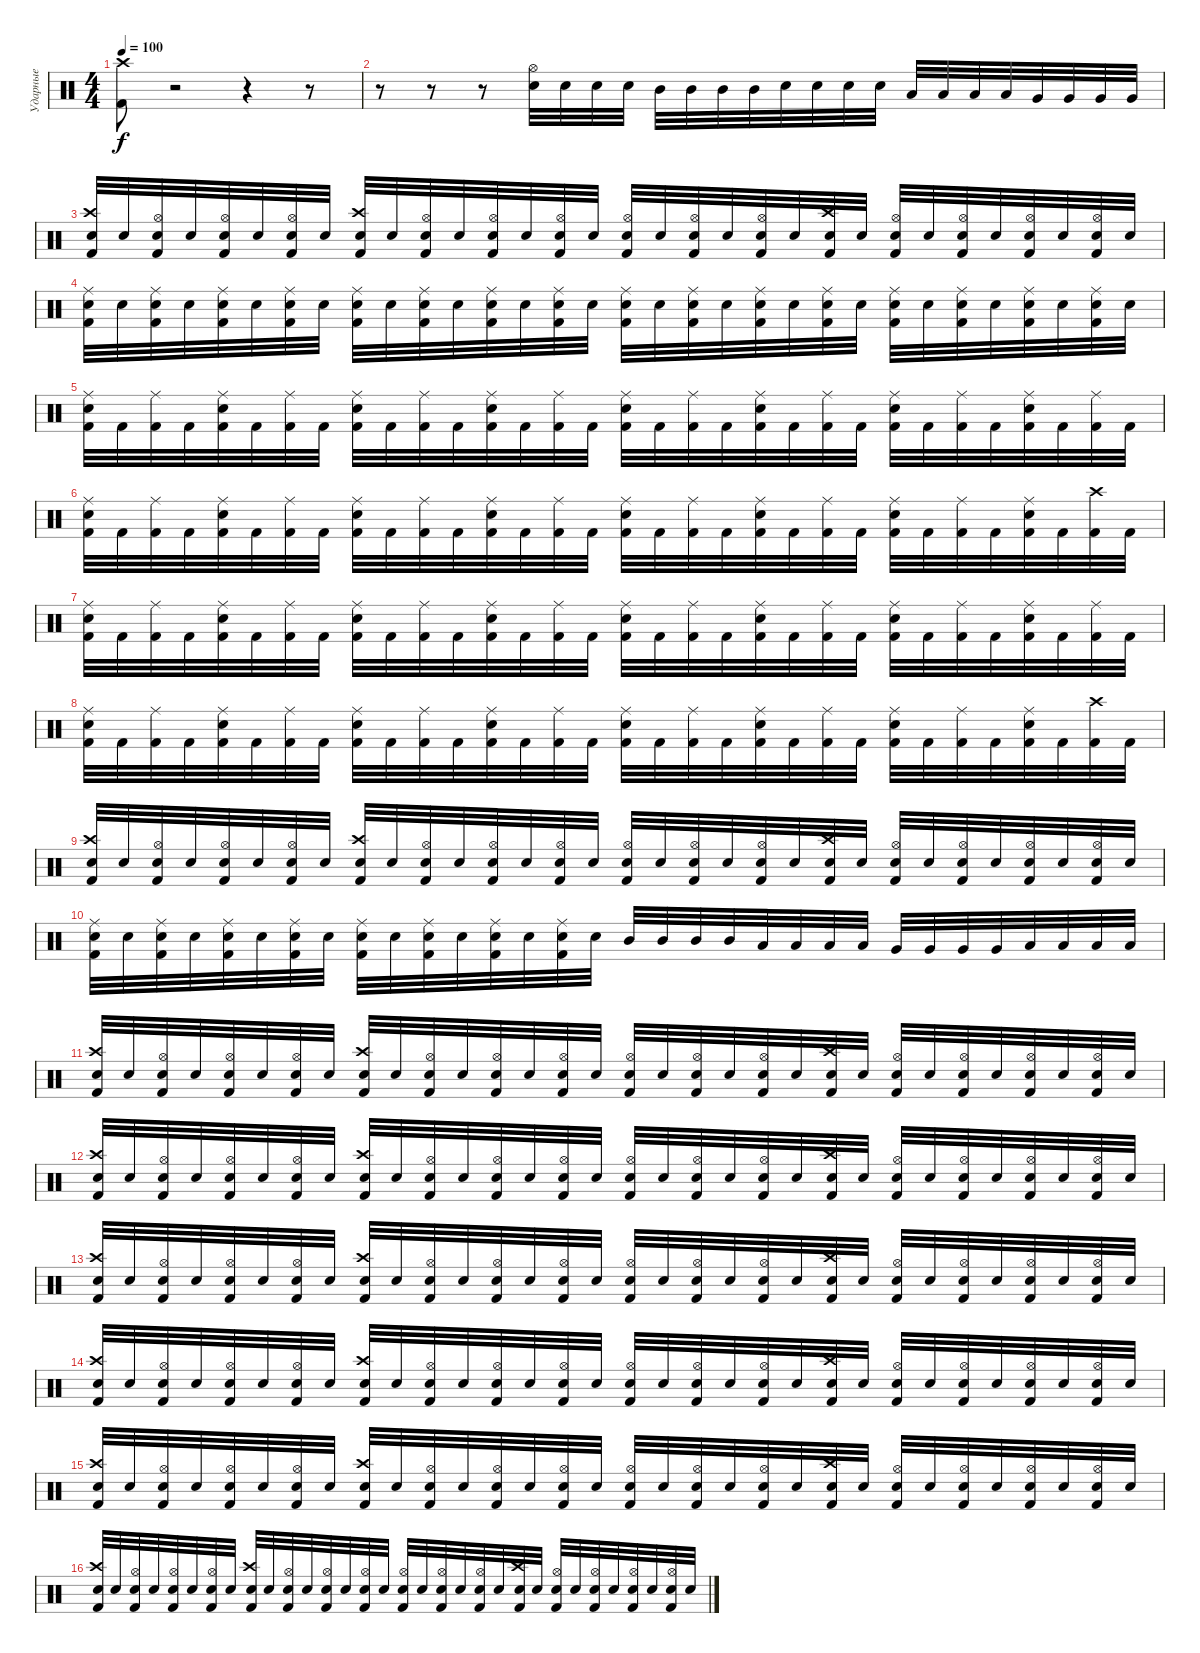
\track ("Ударные" "Ударные") {instrument percussion}
\staff {score}
\articulation defaults
\ts (4 4)
\tempo 100
\clef neutral
\ks c
("Kick (hit) 2" "Crash high (hit)").8{dy f} r.2 r.4 r.8 |
r.8 r.8 r.8 ("Hi-Hat (open)" "Snare (hit) 2").32 "Snare (hit) 2".32 "Snare (hit) 2".32 "Snare (hit) 2".32 "Mid Tom (hit)".32 "Mid Tom (hit)".32 "Mid Tom (hit)".32 "Mid Tom (hit)".32 "Snare (hit) 2".32 "Snare (hit) 2".32 "Snare (hit) 2".32 "Snare (hit) 2".32 "Low Tom (hit)".32 "Low Tom (hit)".32 "Low Tom (hit)".32 "Low Tom (hit)".32 "Very Low Tom (hit)".32 "Very Low Tom (hit)".32 "Very Low Tom (hit)".32 "Very Low Tom (hit)".32 |
("Snare (hit) 2" "Kick (hit) 2" "Crash high (hit)").32 "Snare (hit) 2".32 ("Snare (hit) 2" "Kick (hit) 2" "Hi-Hat (open)").32 "Snare (hit) 2".32 ("Snare (hit) 2" "Kick (hit) 2" "Hi-Hat (open)").32 "Snare (hit) 2".32 ("Snare (hit) 2" "Kick (hit) 2" "Hi-Hat (open)").32 "Snare (hit) 2".32 ("Snare (hit) 2" "Kick (hit) 2" "Crash high (hit)").32 "Snare (hit) 2".32 ("Snare (hit) 2" "Kick (hit) 2" "Hi-Hat (open)").32 "Snare (hit) 2".32 ("Snare (hit) 2" "Kick (hit) 2" "Hi-Hat (open)").32 "Snare (hit) 2".32 ("Snare (hit) 2" "Kick (hit) 2" "Hi-Hat (open)").32 "Snare (hit) 2".32 ("Snare (hit) 2" "Kick (hit) 2" "Hi-Hat (open)").32 "Snare (hit) 2".32 ("Snare (hit) 2" "Kick (hit) 2" "Hi-Hat (open)").32 "Snare (hit) 2".32 ("Snare (hit) 2" "Kick (hit) 2" "Hi-Hat (open)").32 "Snare (hit) 2".32 ("Snare (hit) 2" "Kick (hit) 2" "Crash high (hit)").32 "Snare (hit) 2".32 ("Snare (hit) 2" "Kick (hit) 2" "Hi-Hat (open)").32 "Snare (hit) 2".32 ("Snare (hit) 2" "Kick (hit) 2" "Hi-Hat (open)").32 "Snare (hit) 2".32 ("Snare (hit) 2" "Kick (hit) 2" "Hi-Hat (open)").32 "Snare (hit) 2".32 ("Snare (hit) 2" "Kick (hit) 2" "Hi-Hat (open)").32 "Snare (hit) 2".32 |
("Snare (hit) 2" "Kick (hit) 2" "Ride (middle)").32 "Snare (hit) 2".32 ("Snare (hit) 2" "Kick (hit) 2" "Ride (middle)").32 "Snare (hit) 2".32 ("Snare (hit) 2" "Kick (hit) 2" "Ride (middle)").32 "Snare (hit) 2".32 ("Snare (hit) 2" "Kick (hit) 2" "Ride (middle)").32 "Snare (hit) 2".32 ("Snare (hit) 2" "Kick (hit) 2" "Ride (middle)").32 "Snare (hit) 2".32 ("Snare (hit) 2" "Kick (hit) 2" "Ride (middle)").32 "Snare (hit) 2".32 ("Snare (hit) 2" "Kick (hit) 2" "Ride (middle)").32 "Snare (hit) 2".32 ("Snare (hit) 2" "Kick (hit) 2" "Ride (middle)").32 "Snare (hit) 2".32 ("Snare (hit) 2" "Kick (hit) 2" "Ride (middle)").32 "Snare (hit) 2".32 ("Snare (hit) 2" "Kick (hit) 2" "Ride (middle)").32 "Snare (hit) 2".32 ("Snare (hit) 2" "Kick (hit) 2" "Ride (middle)").32 "Snare (hit) 2".32 ("Snare (hit) 2" "Kick (hit) 2" "Ride (middle)").32 "Snare (hit) 2".32 ("Snare (hit) 2" "Kick (hit) 2" "Ride (middle)").32 "Snare (hit) 2".32 ("Snare (hit) 2" "Kick (hit) 2" "Ride (middle)").32 "Snare (hit) 2".32 ("Snare (hit) 2" "Kick (hit) 2" "Ride (middle)").32 "Snare (hit) 2".32 ("Snare (hit) 2" "Kick (hit) 2" "Ride (middle)").32 "Snare (hit) 2".32 |
("Kick (hit) 2" "Snare (hit) 2" "Ride (middle)").32 "Kick (hit) 2".32 ("Kick (hit) 2" "Ride (middle)").32 "Kick (hit) 2".32 ("Kick (hit) 2" "Snare (hit) 2" "Ride (middle)").32 "Kick (hit) 2".32 ("Kick (hit) 2" "Ride (middle)").32 "Kick (hit) 2".32 ("Kick (hit) 2" "Snare (hit) 2" "Ride (middle)").32 "Kick (hit) 2".32 ("Kick (hit) 2" "Ride (middle)").32 "Kick (hit) 2".32 ("Kick (hit) 2" "Snare (hit) 2" "Ride (middle)").32 "Kick (hit) 2".32 ("Kick (hit) 2" "Ride (middle)").32 "Kick (hit) 2".32 ("Kick (hit) 2" "Snare (hit) 2" "Ride (middle)").32 "Kick (hit) 2".32 ("Kick (hit) 2" "Ride (middle)").32 "Kick (hit) 2".32 ("Kick (hit) 2" "Snare (hit) 2" "Ride (middle)").32 "Kick (hit) 2".32 ("Kick (hit) 2" "Ride (middle)").32 "Kick (hit) 2".32 ("Kick (hit) 2" "Snare (hit) 2" "Ride (middle)").32 "Kick (hit) 2".32 ("Kick (hit) 2" "Ride (middle)").32 "Kick (hit) 2".32 ("Kick (hit) 2" "Snare (hit) 2" "Ride (middle)").32 "Kick (hit) 2".32 ("Kick (hit) 2" "Ride (middle)").32 "Kick (hit) 2".32 |
("Kick (hit) 2" "Snare (hit) 2" "Ride (middle)").32 "Kick (hit) 2".32 ("Kick (hit) 2" "Ride (middle)").32 "Kick (hit) 2".32 ("Kick (hit) 2" "Snare (hit) 2" "Ride (middle)").32 "Kick (hit) 2".32 ("Kick (hit) 2" "Ride (middle)").32 "Kick (hit) 2".32 ("Kick (hit) 2" "Snare (hit) 2" "Ride (middle)").32 "Kick (hit) 2".32 ("Kick (hit) 2" "Ride (middle)").32 "Kick (hit) 2".32 ("Kick (hit) 2" "Snare (hit) 2" "Ride (middle)").32 "Kick (hit) 2".32 ("Kick (hit) 2" "Ride (middle)").32 "Kick (hit) 2".32 ("Kick (hit) 2" "Snare (hit) 2" "Ride (middle)").32 "Kick (hit) 2".32 ("Kick (hit) 2" "Ride (middle)").32 "Kick (hit) 2".32 ("Kick (hit) 2" "Snare (hit) 2" "Ride (middle)").32 "Kick (hit) 2".32 ("Kick (hit) 2" "Ride (middle)").32 "Kick (hit) 2".32 ("Kick (hit) 2" "Snare (hit) 2" "Ride (middle)").32 "Kick (hit) 2".32 ("Kick (hit) 2" "Ride (middle)").32 "Kick (hit) 2".32 ("Kick (hit) 2" "Snare (hit) 2" "Ride (middle)").32 "Kick (hit) 2".32 ("Kick (hit) 2" "Crash high (hit)").32 "Kick (hit) 2".32 |
("Kick (hit) 2" "Snare (hit) 2" "Ride (middle)").32 "Kick (hit) 2".32 ("Kick (hit) 2" "Ride (middle)").32 "Kick (hit) 2".32 ("Kick (hit) 2" "Snare (hit) 2" "Ride (middle)").32 "Kick (hit) 2".32 ("Kick (hit) 2" "Ride (middle)").32 "Kick (hit) 2".32 ("Kick (hit) 2" "Snare (hit) 2" "Ride (middle)").32 "Kick (hit) 2".32 ("Kick (hit) 2" "Ride (middle)").32 "Kick (hit) 2".32 ("Kick (hit) 2" "Snare (hit) 2" "Ride (middle)").32 "Kick (hit) 2".32 ("Kick (hit) 2" "Ride (middle)").32 "Kick (hit) 2".32 ("Kick (hit) 2" "Snare (hit) 2" "Ride (middle)").32 "Kick (hit) 2".32 ("Kick (hit) 2" "Ride (middle)").32 "Kick (hit) 2".32 ("Kick (hit) 2" "Snare (hit) 2" "Ride (middle)").32 "Kick (hit) 2".32 ("Kick (hit) 2" "Ride (middle)").32 "Kick (hit) 2".32 ("Kick (hit) 2" "Snare (hit) 2" "Ride (middle)").32 "Kick (hit) 2".32 ("Kick (hit) 2" "Ride (middle)").32 "Kick (hit) 2".32 ("Kick (hit) 2" "Snare (hit) 2" "Ride (middle)").32 "Kick (hit) 2".32 ("Kick (hit) 2" "Ride (middle)").32 "Kick (hit) 2".32 |
("Kick (hit) 2" "Snare (hit) 2" "Ride (middle)").32 "Kick (hit) 2".32 ("Kick (hit) 2" "Ride (middle)").32 "Kick (hit) 2".32 ("Kick (hit) 2" "Snare (hit) 2" "Ride (middle)").32 "Kick (hit) 2".32 ("Kick (hit) 2" "Ride (middle)").32 "Kick (hit) 2".32 ("Kick (hit) 2" "Snare (hit) 2" "Ride (middle)").32 "Kick (hit) 2".32 ("Kick (hit) 2" "Ride (middle)").32 "Kick (hit) 2".32 ("Kick (hit) 2" "Snare (hit) 2" "Ride (middle)").32 "Kick (hit) 2".32 ("Kick (hit) 2" "Ride (middle)").32 "Kick (hit) 2".32 ("Kick (hit) 2" "Snare (hit) 2" "Ride (middle)").32 "Kick (hit) 2".32 ("Kick (hit) 2" "Ride (middle)").32 "Kick (hit) 2".32 ("Kick (hit) 2" "Snare (hit) 2" "Ride (middle)").32 "Kick (hit) 2".32 ("Kick (hit) 2" "Ride (middle)").32 "Kick (hit) 2".32 ("Kick (hit) 2" "Snare (hit) 2" "Ride (middle)").32 "Kick (hit) 2".32 ("Kick (hit) 2" "Ride (middle)").32 "Kick (hit) 2".32 ("Kick (hit) 2" "Snare (hit) 2" "Ride (middle)").32 "Kick (hit) 2".32 ("Kick (hit) 2" "Crash high (hit)").32 "Kick (hit) 2".32 |
("Snare (hit) 2" "Kick (hit) 2" "Crash high (hit)").32 "Snare (hit) 2".32 ("Snare (hit) 2" "Kick (hit) 2" "Hi-Hat (open)").32 "Snare (hit) 2".32 ("Snare (hit) 2" "Kick (hit) 2" "Hi-Hat (open)").32 "Snare (hit) 2".32 ("Snare (hit) 2" "Kick (hit) 2" "Hi-Hat (open)").32 "Snare (hit) 2".32 ("Snare (hit) 2" "Kick (hit) 2" "Crash high (hit)").32 "Snare (hit) 2".32 ("Snare (hit) 2" "Kick (hit) 2" "Hi-Hat (open)").32 "Snare (hit) 2".32 ("Snare (hit) 2" "Kick (hit) 2" "Hi-Hat (open)").32 "Snare (hit) 2".32 ("Snare (hit) 2" "Kick (hit) 2" "Hi-Hat (open)").32 "Snare (hit) 2".32 ("Snare (hit) 2" "Kick (hit) 2" "Hi-Hat (open)").32 "Snare (hit) 2".32 ("Snare (hit) 2" "Kick (hit) 2" "Hi-Hat (open)").32 "Snare (hit) 2".32 ("Snare (hit) 2" "Kick (hit) 2" "Hi-Hat (open)").32 "Snare (hit) 2".32 ("Snare (hit) 2" "Kick (hit) 2" "Crash high (hit)").32 "Snare (hit) 2".32 ("Snare (hit) 2" "Kick (hit) 2" "Hi-Hat (open)").32 "Snare (hit) 2".32 ("Snare (hit) 2" "Kick (hit) 2" "Hi-Hat (open)").32 "Snare (hit) 2".32 ("Snare (hit) 2" "Kick (hit) 2" "Hi-Hat (open)").32 "Snare (hit) 2".32 ("Snare (hit) 2" "Kick (hit) 2" "Hi-Hat (open)").32 "Snare (hit) 2".32 |
("Snare (hit) 2" "Kick (hit) 2" "Ride (middle)").32 "Snare (hit) 2".32 ("Snare (hit) 2" "Kick (hit) 2" "Ride (middle)").32 "Snare (hit) 2".32 ("Snare (hit) 2" "Kick (hit) 2" "Ride (middle)").32 "Snare (hit) 2".32 ("Snare (hit) 2" "Kick (hit) 2" "Ride (middle)").32 "Snare (hit) 2".32 ("Snare (hit) 2" "Kick (hit) 2" "Ride (middle)").32 "Snare (hit) 2".32 ("Snare (hit) 2" "Kick (hit) 2" "Ride (middle)").32 "Snare (hit) 2".32 ("Snare (hit) 2" "Kick (hit) 2" "Ride (middle)").32 "Snare (hit) 2".32 ("Snare (hit) 2" "Kick (hit) 2" "Ride (middle)").32 "Snare (hit) 2".32 "Mid Tom (hit)".32 "Mid Tom (hit)".32 "Mid Tom (hit)".32 "Mid Tom (hit)".32 "Low Tom (hit)".32 "Low Tom (hit)".32 "Low Tom (hit)".32 "Low Tom (hit)".32 "Very Low Tom (hit)".32 "Very Low Tom (hit)".32 "Very Low Tom (hit)".32 "Very Low Tom (hit)".32 "Low Floor Tom (hit)".32 "Low Floor Tom (hit)".32 "Low Floor Tom (hit)".32 "Low Floor Tom (hit)".32 |
("Snare (hit) 2" "Kick (hit) 2" "Crash high (hit)").32 "Snare (hit) 2".32 ("Snare (hit) 2" "Kick (hit) 2" "Hi-Hat (open)").32 "Snare (hit) 2".32 ("Snare (hit) 2" "Kick (hit) 2" "Hi-Hat (open)").32 "Snare (hit) 2".32 ("Snare (hit) 2" "Kick (hit) 2" "Hi-Hat (open)").32 "Snare (hit) 2".32 ("Snare (hit) 2" "Kick (hit) 2" "Crash high (hit)").32 "Snare (hit) 2".32 ("Snare (hit) 2" "Kick (hit) 2" "Hi-Hat (open)").32 "Snare (hit) 2".32 ("Snare (hit) 2" "Kick (hit) 2" "Hi-Hat (open)").32 "Snare (hit) 2".32 ("Snare (hit) 2" "Kick (hit) 2" "Hi-Hat (open)").32 "Snare (hit) 2".32 ("Snare (hit) 2" "Kick (hit) 2" "Hi-Hat (open)").32 "Snare (hit) 2".32 ("Snare (hit) 2" "Kick (hit) 2" "Hi-Hat (open)").32 "Snare (hit) 2".32 ("Snare (hit) 2" "Kick (hit) 2" "Hi-Hat (open)").32 "Snare (hit) 2".32 ("Snare (hit) 2" "Kick (hit) 2" "Crash high (hit)").32 "Snare (hit) 2".32 ("Snare (hit) 2" "Kick (hit) 2" "Hi-Hat (open)").32 "Snare (hit) 2".32 ("Snare (hit) 2" "Kick (hit) 2" "Hi-Hat (open)").32 "Snare (hit) 2".32 ("Snare (hit) 2" "Kick (hit) 2" "Hi-Hat (open)").32 "Snare (hit) 2".32 ("Snare (hit) 2" "Kick (hit) 2" "Hi-Hat (open)").32 "Snare (hit) 2".32 |
("Snare (hit) 2" "Kick (hit) 2" "Crash high (hit)").32 "Snare (hit) 2".32 ("Snare (hit) 2" "Kick (hit) 2" "Hi-Hat (open)").32 "Snare (hit) 2".32 ("Snare (hit) 2" "Kick (hit) 2" "Hi-Hat (open)").32 "Snare (hit) 2".32 ("Snare (hit) 2" "Kick (hit) 2" "Hi-Hat (open)").32 "Snare (hit) 2".32 ("Snare (hit) 2" "Kick (hit) 2" "Crash high (hit)").32 "Snare (hit) 2".32 ("Snare (hit) 2" "Kick (hit) 2" "Hi-Hat (open)").32 "Snare (hit) 2".32 ("Snare (hit) 2" "Kick (hit) 2" "Hi-Hat (open)").32 "Snare (hit) 2".32 ("Snare (hit) 2" "Kick (hit) 2" "Hi-Hat (open)").32 "Snare (hit) 2".32 ("Snare (hit) 2" "Kick (hit) 2" "Hi-Hat (open)").32 "Snare (hit) 2".32 ("Snare (hit) 2" "Kick (hit) 2" "Hi-Hat (open)").32 "Snare (hit) 2".32 ("Snare (hit) 2" "Kick (hit) 2" "Hi-Hat (open)").32 "Snare (hit) 2".32 ("Snare (hit) 2" "Kick (hit) 2" "Crash high (hit)").32 "Snare (hit) 2".32 ("Snare (hit) 2" "Kick (hit) 2" "Hi-Hat (open)").32 "Snare (hit) 2".32 ("Snare (hit) 2" "Kick (hit) 2" "Hi-Hat (open)").32 "Snare (hit) 2".32 ("Snare (hit) 2" "Kick (hit) 2" "Hi-Hat (open)").32 "Snare (hit) 2".32 ("Snare (hit) 2" "Kick (hit) 2" "Hi-Hat (open)").32 "Snare (hit) 2".32 |
("Snare (hit) 2" "Kick (hit) 2" "Crash high (hit)").32 "Snare (hit) 2".32 ("Snare (hit) 2" "Kick (hit) 2" "Hi-Hat (open)").32 "Snare (hit) 2".32 ("Snare (hit) 2" "Kick (hit) 2" "Hi-Hat (open)").32 "Snare (hit) 2".32 ("Snare (hit) 2" "Kick (hit) 2" "Hi-Hat (open)").32 "Snare (hit) 2".32 ("Snare (hit) 2" "Kick (hit) 2" "Crash high (hit)").32 "Snare (hit) 2".32 ("Snare (hit) 2" "Kick (hit) 2" "Hi-Hat (open)").32 "Snare (hit) 2".32 ("Snare (hit) 2" "Kick (hit) 2" "Hi-Hat (open)").32 "Snare (hit) 2".32 ("Snare (hit) 2" "Kick (hit) 2" "Hi-Hat (open)").32 "Snare (hit) 2".32 ("Snare (hit) 2" "Kick (hit) 2" "Hi-Hat (open)").32 "Snare (hit) 2".32 ("Snare (hit) 2" "Kick (hit) 2" "Hi-Hat (open)").32 "Snare (hit) 2".32 ("Snare (hit) 2" "Kick (hit) 2" "Hi-Hat (open)").32 "Snare (hit) 2".32 ("Snare (hit) 2" "Kick (hit) 2" "Crash high (hit)").32 "Snare (hit) 2".32 ("Snare (hit) 2" "Kick (hit) 2" "Hi-Hat (open)").32 "Snare (hit) 2".32 ("Snare (hit) 2" "Kick (hit) 2" "Hi-Hat (open)").32 "Snare (hit) 2".32 ("Snare (hit) 2" "Kick (hit) 2" "Hi-Hat (open)").32 "Snare (hit) 2".32 ("Snare (hit) 2" "Kick (hit) 2" "Hi-Hat (open)").32 "Snare (hit) 2".32 |
("Snare (hit) 2" "Kick (hit) 2" "Crash high (hit)").32 "Snare (hit) 2".32 ("Snare (hit) 2" "Kick (hit) 2" "Hi-Hat (open)").32 "Snare (hit) 2".32 ("Snare (hit) 2" "Kick (hit) 2" "Hi-Hat (open)").32 "Snare (hit) 2".32 ("Snare (hit) 2" "Kick (hit) 2" "Hi-Hat (open)").32 "Snare (hit) 2".32 ("Snare (hit) 2" "Kick (hit) 2" "Crash high (hit)").32 "Snare (hit) 2".32 ("Snare (hit) 2" "Kick (hit) 2" "Hi-Hat (open)").32 "Snare (hit) 2".32 ("Snare (hit) 2" "Kick (hit) 2" "Hi-Hat (open)").32 "Snare (hit) 2".32 ("Snare (hit) 2" "Kick (hit) 2" "Hi-Hat (open)").32 "Snare (hit) 2".32 ("Snare (hit) 2" "Kick (hit) 2" "Hi-Hat (open)").32 "Snare (hit) 2".32 ("Snare (hit) 2" "Kick (hit) 2" "Hi-Hat (open)").32 "Snare (hit) 2".32 ("Snare (hit) 2" "Kick (hit) 2" "Hi-Hat (open)").32 "Snare (hit) 2".32 ("Snare (hit) 2" "Kick (hit) 2" "Crash high (hit)").32 "Snare (hit) 2".32 ("Snare (hit) 2" "Kick (hit) 2" "Hi-Hat (open)").32 "Snare (hit) 2".32 ("Snare (hit) 2" "Kick (hit) 2" "Hi-Hat (open)").32 "Snare (hit) 2".32 ("Snare (hit) 2" "Kick (hit) 2" "Hi-Hat (open)").32 "Snare (hit) 2".32 ("Snare (hit) 2" "Kick (hit) 2" "Hi-Hat (open)").32 "Snare (hit) 2".32 |
("Snare (hit) 2" "Kick (hit) 2" "Crash high (hit)").32 "Snare (hit) 2".32 ("Snare (hit) 2" "Kick (hit) 2" "Hi-Hat (open)").32 "Snare (hit) 2".32 ("Snare (hit) 2" "Kick (hit) 2" "Hi-Hat (open)").32 "Snare (hit) 2".32 ("Snare (hit) 2" "Kick (hit) 2" "Hi-Hat (open)").32 "Snare (hit) 2".32 ("Snare (hit) 2" "Kick (hit) 2" "Crash high (hit)").32 "Snare (hit) 2".32 ("Snare (hit) 2" "Kick (hit) 2" "Hi-Hat (open)").32 "Snare (hit) 2".32 ("Snare (hit) 2" "Kick (hit) 2" "Hi-Hat (open)").32 "Snare (hit) 2".32 ("Snare (hit) 2" "Kick (hit) 2" "Hi-Hat (open)").32 "Snare (hit) 2".32 ("Snare (hit) 2" "Kick (hit) 2" "Hi-Hat (open)").32 "Snare (hit) 2".32 ("Snare (hit) 2" "Kick (hit) 2" "Hi-Hat (open)").32 "Snare (hit) 2".32 ("Snare (hit) 2" "Kick (hit) 2" "Hi-Hat (open)").32 "Snare (hit) 2".32 ("Snare (hit) 2" "Kick (hit) 2" "Crash high (hit)").32 "Snare (hit) 2".32 ("Snare (hit) 2" "Kick (hit) 2" "Hi-Hat (open)").32 "Snare (hit) 2".32 ("Snare (hit) 2" "Kick (hit) 2" "Hi-Hat (open)").32 "Snare (hit) 2".32 ("Snare (hit) 2" "Kick (hit) 2" "Hi-Hat (open)").32 "Snare (hit) 2".32 ("Snare (hit) 2" "Kick (hit) 2" "Hi-Hat (open)").32 "Snare (hit) 2".32 |
("Snare (hit) 2" "Kick (hit) 2" "Crash high (hit)").32 "Snare (hit) 2".32 ("Snare (hit) 2" "Kick (hit) 2" "Hi-Hat (open)").32 "Snare (hit) 2".32 ("Snare (hit) 2" "Kick (hit) 2" "Hi-Hat (open)").32 "Snare (hit) 2".32 ("Snare (hit) 2" "Kick (hit) 2" "Hi-Hat (open)").32 "Snare (hit) 2".32 ("Snare (hit) 2" "Kick (hit) 2" "Crash high (hit)").32 "Snare (hit) 2".32 ("Snare (hit) 2" "Kick (hit) 2" "Hi-Hat (open)").32 "Snare (hit) 2".32 ("Snare (hit) 2" "Kick (hit) 2" "Hi-Hat (open)").32 "Snare (hit) 2".32 ("Snare (hit) 2" "Kick (hit) 2" "Hi-Hat (open)").32 "Snare (hit) 2".32 ("Snare (hit) 2" "Kick (hit) 2" "Hi-Hat (open)").32 "Snare (hit) 2".32 ("Snare (hit) 2" "Kick (hit) 2" "Hi-Hat (open)").32 "Snare (hit) 2".32 ("Snare (hit) 2" "Kick (hit) 2" "Hi-Hat (open)").32 "Snare (hit) 2".32 ("Snare (hit) 2" "Kick (hit) 2" "Crash high (hit)").32 "Snare (hit) 2".32 ("Snare (hit) 2" "Kick (hit) 2" "Hi-Hat (open)").32 "Snare (hit) 2".32 ("Snare (hit) 2" "Kick (hit) 2" "Hi-Hat (open)").32 "Snare (hit) 2".32 ("Snare (hit) 2" "Kick (hit) 2" "Hi-Hat (open)").32 "Snare (hit) 2".32 ("Snare (hit) 2" "Kick (hit) 2" "Hi-Hat (open)").32 "Snare (hit) 2".32
